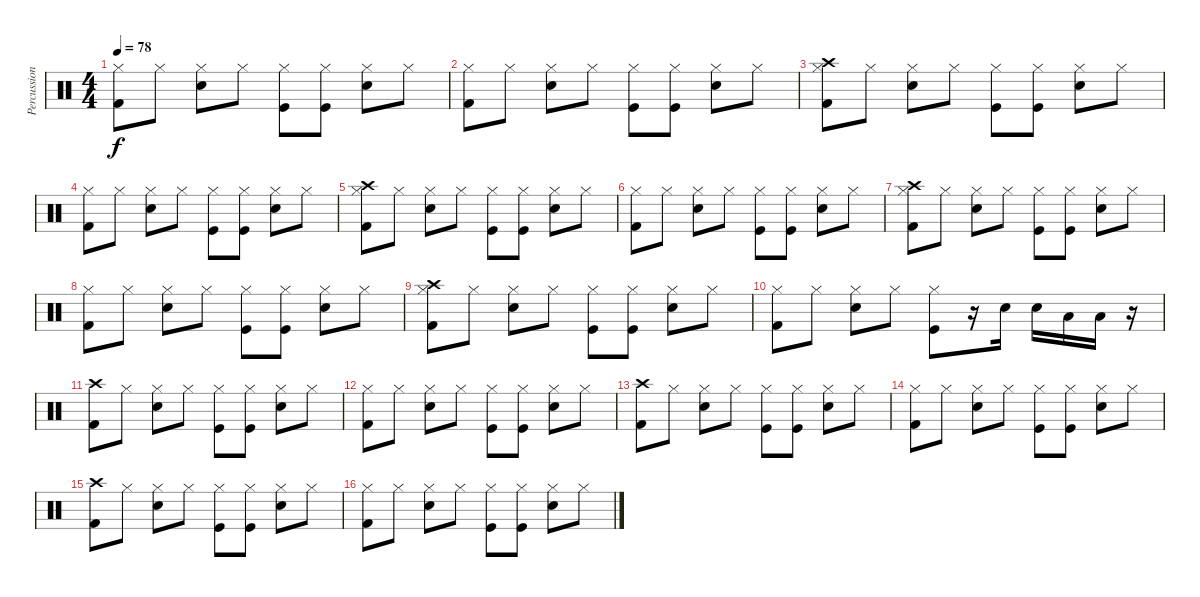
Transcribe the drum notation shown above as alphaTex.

\track ("Percussion" "Percussion") {instrument percussion}
\staff {score}
\articulation defaults
\ts (4 4)
\tempo 78
\clef neutral
\ks c
("Hi-Hat (closed)" "Kick (hit) 2").8{dy f} "Hi-Hat (closed)".8 ("Hi-Hat (closed)" "Electric Snare (hit)").8 "Hi-Hat (closed)".8 ("Hi-Hat (closed)" "Kick (hit)").8 ("Hi-Hat (closed)" "Kick (hit)").8 ("Hi-Hat (closed)" "Electric Snare (hit)").8 "Hi-Hat (closed)".8 |
("Hi-Hat (closed)" "Kick (hit) 2").8 "Hi-Hat (closed)".8 ("Hi-Hat (closed)" "Electric Snare (hit)").8 "Hi-Hat (closed)".8 ("Hi-Hat (closed)" "Kick (hit)").8 ("Hi-Hat (closed)" "Kick (hit)").8 ("Hi-Hat (closed)" "Electric Snare (hit)").8 "Hi-Hat (closed)".8 |
("Crash high (hit)" "Hi-Hat (closed)" "Kick (hit) 2").8 "Hi-Hat (closed)".8 ("Hi-Hat (closed)" "Electric Snare (hit)").8 "Hi-Hat (closed)".8 ("Hi-Hat (closed)" "Kick (hit)").8 ("Hi-Hat (closed)" "Kick (hit)").8 ("Hi-Hat (closed)" "Electric Snare (hit)").8 "Hi-Hat (closed)".8 |
("Hi-Hat (closed)" "Kick (hit) 2").8 "Hi-Hat (closed)".8 ("Hi-Hat (closed)" "Electric Snare (hit)").8 "Hi-Hat (closed)".8 ("Hi-Hat (closed)" "Kick (hit)").8 ("Hi-Hat (closed)" "Kick (hit)").8 ("Hi-Hat (closed)" "Electric Snare (hit)").8 "Hi-Hat (closed)".8 |
("Crash high (hit)" "Hi-Hat (closed)" "Kick (hit) 2").8 "Hi-Hat (closed)".8 ("Hi-Hat (closed)" "Electric Snare (hit)").8 "Hi-Hat (closed)".8 ("Hi-Hat (closed)" "Kick (hit)").8 ("Hi-Hat (closed)" "Kick (hit)").8 ("Hi-Hat (closed)" "Electric Snare (hit)").8 "Hi-Hat (closed)".8 |
("Hi-Hat (closed)" "Kick (hit) 2").8 "Hi-Hat (closed)".8 ("Hi-Hat (closed)" "Electric Snare (hit)").8 "Hi-Hat (closed)".8 ("Hi-Hat (closed)" "Kick (hit)").8 ("Hi-Hat (closed)" "Kick (hit)").8 ("Hi-Hat (closed)" "Electric Snare (hit)").8 "Hi-Hat (closed)".8 |
("Crash high (hit)" "Hi-Hat (closed)" "Kick (hit) 2").8 "Hi-Hat (closed)".8 ("Hi-Hat (closed)" "Electric Snare (hit)").8 "Hi-Hat (closed)".8 ("Hi-Hat (closed)" "Kick (hit)").8 ("Hi-Hat (closed)" "Kick (hit)").8 ("Hi-Hat (closed)" "Electric Snare (hit)").8 "Hi-Hat (closed)".8 |
("Hi-Hat (closed)" "Kick (hit) 2").8 "Hi-Hat (closed)".8 ("Hi-Hat (closed)" "Electric Snare (hit)").8 "Hi-Hat (closed)".8 ("Hi-Hat (closed)" "Kick (hit)").8 ("Hi-Hat (closed)" "Kick (hit)").8 ("Hi-Hat (closed)" "Electric Snare (hit)").8 "Hi-Hat (closed)".8 |
("Crash high (hit)" "Hi-Hat (closed)" "Kick (hit) 2").8 "Hi-Hat (closed)".8 ("Hi-Hat (closed)" "Electric Snare (hit)").8 "Hi-Hat (closed)".8 ("Hi-Hat (closed)" "Kick (hit)").8 ("Hi-Hat (closed)" "Kick (hit)").8 ("Hi-Hat (closed)" "Electric Snare (hit)").8 "Hi-Hat (closed)".8 |
("Hi-Hat (closed)" "Kick (hit) 2").8 "Hi-Hat (closed)".8 ("Hi-Hat (closed)" "Electric Snare (hit)").8 "Hi-Hat (closed)".8 ("Hi-Hat (closed)" "Kick (hit)").8 r.16 "Snare (hit) 2".16 "Snare (hit) 2".16 "Low Tom (hit)".16 "Low Floor Tom (hit)".16 r.16 |
("Crash high (hit)" "Kick (hit) 2").8 "Hi-Hat (closed)".8 ("Hi-Hat (closed)" "Electric Snare (hit)").8 "Hi-Hat (closed)".8 ("Hi-Hat (closed)" "Kick (hit)").8 ("Hi-Hat (closed)" "Kick (hit)").8 ("Hi-Hat (closed)" "Electric Snare (hit)").8 "Hi-Hat (closed)".8 |
("Hi-Hat (closed)" "Kick (hit) 2").8 "Hi-Hat (closed)".8 ("Hi-Hat (closed)" "Electric Snare (hit)").8 "Hi-Hat (closed)".8 ("Hi-Hat (closed)" "Kick (hit)").8 ("Hi-Hat (closed)" "Kick (hit)").8 ("Hi-Hat (closed)" "Electric Snare (hit)").8 "Hi-Hat (closed)".8 |
("Crash high (hit)" "Kick (hit) 2").8 "Hi-Hat (closed)".8 ("Hi-Hat (closed)" "Electric Snare (hit)").8 "Hi-Hat (closed)".8 ("Hi-Hat (closed)" "Kick (hit)").8 ("Hi-Hat (closed)" "Kick (hit)").8 ("Hi-Hat (closed)" "Electric Snare (hit)").8 "Hi-Hat (closed)".8 |
("Hi-Hat (closed)" "Kick (hit) 2").8 "Hi-Hat (closed)".8 ("Hi-Hat (closed)" "Electric Snare (hit)").8 "Hi-Hat (closed)".8 ("Hi-Hat (closed)" "Kick (hit)").8 ("Hi-Hat (closed)" "Kick (hit)").8 ("Hi-Hat (closed)" "Electric Snare (hit)").8 "Hi-Hat (closed)".8 |
("Crash high (hit)" "Kick (hit) 2").8 "Hi-Hat (closed)".8 ("Hi-Hat (closed)" "Electric Snare (hit)").8 "Hi-Hat (closed)".8 ("Hi-Hat (closed)" "Kick (hit)").8 ("Hi-Hat (closed)" "Kick (hit)").8 ("Hi-Hat (closed)" "Electric Snare (hit)").8 "Hi-Hat (closed)".8 |
("Hi-Hat (closed)" "Kick (hit) 2").8 "Hi-Hat (closed)".8 ("Hi-Hat (closed)" "Electric Snare (hit)").8 "Hi-Hat (closed)".8 ("Hi-Hat (closed)" "Kick (hit)").8 ("Hi-Hat (closed)" "Kick (hit)").8 ("Hi-Hat (closed)" "Electric Snare (hit)").8 "Hi-Hat (closed)".8
